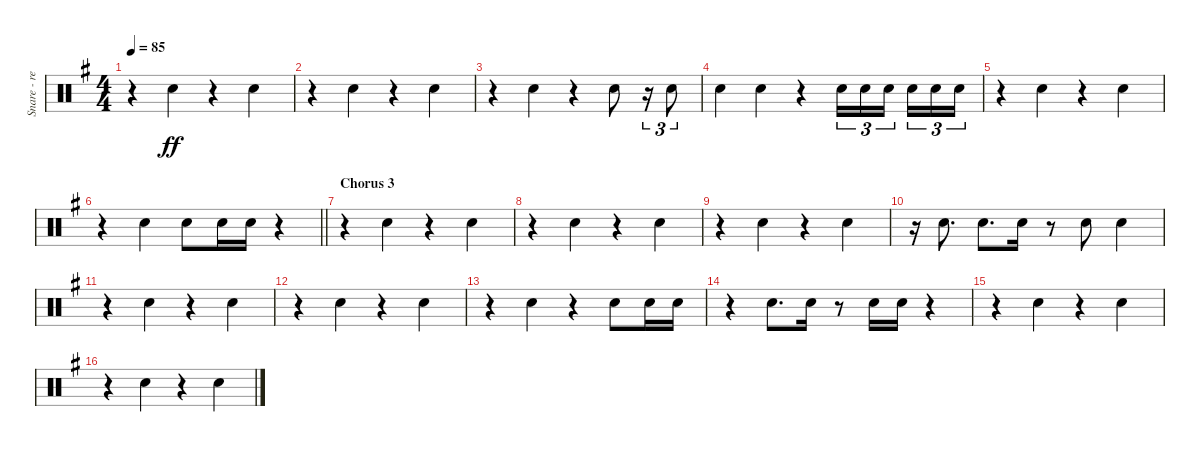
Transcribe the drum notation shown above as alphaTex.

\track ("Snare - reverb" "Snare - re") {instrument percussion}
\staff {score}
\articulation defaults
\ts (4 4)
\tempo 85
\clef neutral
\ks g
r.4{dy ff beam merge} "Snare (hit) 2".4 r.4{beam merge} "Snare (hit) 2".4 |
r.4{beam merge} "Snare (hit) 2".4 r.4{beam merge} "Snare (hit) 2".4 |
r.4{beam merge} "Snare (hit) 2".4 r.4 "Snare (hit) 2".8 r.16{tu (3 2)} "Snare (hit) 2".8{tu (3 2)} |
"Snare (hit) 2".4 "Snare (hit) 2".4 r.4 "Snare (hit) 2".16{tu (3 2)} "Snare (hit) 2".16{tu (3 2)} "Snare (hit) 2".16{tu (3 2) beam splitsecondary} "Snare (hit) 2".16{tu (3 2)} "Snare (hit) 2".16{tu (3 2)} "Snare (hit) 2".16{tu (3 2)} |
r.4{beam merge} "Snare (hit) 2".4 r.4{beam merge} "Snare (hit) 2".4 |
\barLineRight lightlight
r.4{beam merge} "Snare (hit) 2".4 "Snare (hit) 2".8 "Snare (hit) 2".16 "Snare (hit) 2".16 r.4 |
\section ("" "Chorus 3")
r.4{beam merge} "Snare (hit) 2".4 r.4{beam merge} "Snare (hit) 2".4 |
r.4{beam merge} "Snare (hit) 2".4 r.4{beam merge} "Snare (hit) 2".4 |
r.4{beam merge} "Snare (hit) 2".4 r.4{beam merge} "Snare (hit) 2".4 |
r.16 "Snare (hit) 2".8{d} "Snare (hit) 2".8{d} "Snare (hit) 2".16 r.8 "Snare (hit) 2".8 "Snare (hit) 2".4 |
r.4{beam merge} "Snare (hit) 2".4 r.4{beam merge} "Snare (hit) 2".4 |
r.4{beam merge} "Snare (hit) 2".4 r.4{beam merge} "Snare (hit) 2".4 |
r.4{beam merge} "Snare (hit) 2".4 r.4 "Snare (hit) 2".8 "Snare (hit) 2".16 "Snare (hit) 2".16 |
r.4 "Snare (hit) 2".8{d} "Snare (hit) 2".16 r.8 "Snare (hit) 2".16 "Snare (hit) 2".16 r.4 |
r.4{beam merge} "Snare (hit) 2".4 r.4{beam merge} "Snare (hit) 2".4 |
r.4{beam merge} "Snare (hit) 2".4 r.4{beam merge} "Snare (hit) 2".4
